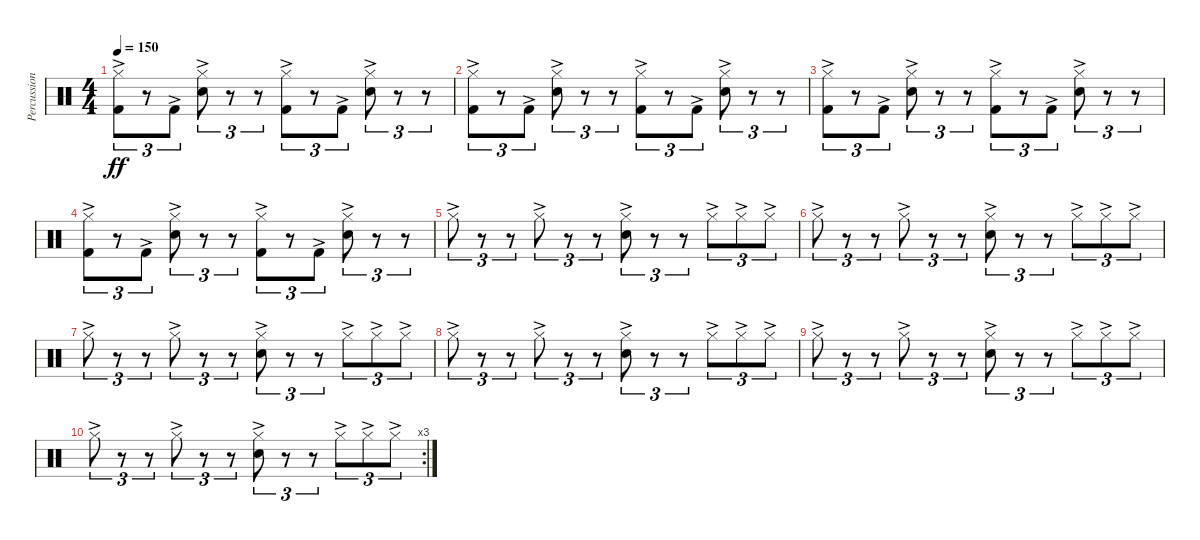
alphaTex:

\track ("Percussion" "Percussion") {instrument percussion}
\staff {score}
\articulation defaults
\ts (4 4)
\tempo 150
\clef neutral
\ks c
("Hi-Hat (closed)"{ac} "Kick (hit) 2"{ac}).8{tu (3 2) dy ff} r.8{tu (3 2)} "Kick (hit) 2"{ac}.8{tu (3 2)} ("Hi-Hat (closed)"{ac} "Snare (hit) 2"{ac}).8{tu (3 2)} r.8{tu (3 2)} r.8{tu (3 2)} ("Hi-Hat (closed)"{ac} "Kick (hit) 2"{ac}).8{tu (3 2)} r.8{tu (3 2)} "Kick (hit) 2"{ac}.8{tu (3 2)} ("Hi-Hat (closed)"{ac} "Snare (hit) 2"{ac}).8{tu (3 2)} r.8{tu (3 2)} r.8{tu (3 2)} |
("Hi-Hat (closed)"{ac} "Kick (hit) 2"{ac}).8{tu (3 2)} r.8{tu (3 2)} "Kick (hit) 2"{ac}.8{tu (3 2)} ("Hi-Hat (closed)"{ac} "Snare (hit) 2"{ac}).8{tu (3 2)} r.8{tu (3 2)} r.8{tu (3 2)} ("Hi-Hat (closed)"{ac} "Kick (hit) 2"{ac}).8{tu (3 2)} r.8{tu (3 2)} "Kick (hit) 2"{ac}.8{tu (3 2)} ("Hi-Hat (closed)"{ac} "Snare (hit) 2"{ac}).8{tu (3 2)} r.8{tu (3 2)} r.8{tu (3 2)} |
("Hi-Hat (closed)"{ac} "Kick (hit) 2"{ac}).8{tu (3 2)} r.8{tu (3 2)} "Kick (hit) 2"{ac}.8{tu (3 2)} ("Hi-Hat (closed)"{ac} "Snare (hit) 2"{ac}).8{tu (3 2)} r.8{tu (3 2)} r.8{tu (3 2)} ("Hi-Hat (closed)"{ac} "Kick (hit) 2"{ac}).8{tu (3 2)} r.8{tu (3 2)} "Kick (hit) 2"{ac}.8{tu (3 2)} ("Hi-Hat (closed)"{ac} "Snare (hit) 2"{ac}).8{tu (3 2)} r.8{tu (3 2)} r.8{tu (3 2)} |
("Hi-Hat (closed)"{ac} "Kick (hit) 2"{ac}).8{tu (3 2)} r.8{tu (3 2)} "Kick (hit) 2"{ac}.8{tu (3 2)} ("Hi-Hat (closed)"{ac} "Snare (hit) 2"{ac}).8{tu (3 2)} r.8{tu (3 2)} r.8{tu (3 2)} ("Hi-Hat (closed)"{ac} "Kick (hit) 2"{ac}).8{tu (3 2)} r.8{tu (3 2)} "Kick (hit) 2"{ac}.8{tu (3 2)} ("Hi-Hat (closed)"{ac} "Snare (hit) 2"{ac}).8{tu (3 2)} r.8{tu (3 2)} r.8{tu (3 2)} |
"Hi-Hat (closed)"{ac}.8{tu (3 2)} r.8{tu (3 2)} r.8{tu (3 2)} "Hi-Hat (closed)"{ac}.8{tu (3 2)} r.8{tu (3 2)} r.8{tu (3 2)} ("Hi-Hat (closed)"{ac} "Snare (hit) 2"{ac}).8{tu (3 2)} r.8{tu (3 2)} r.8{tu (3 2)} "Hi-Hat (closed)"{ac}.8{tu (3 2)} "Hi-Hat (closed)"{ac}.8{tu (3 2)} "Hi-Hat (closed)"{ac}.8{tu (3 2)} |
"Hi-Hat (closed)"{ac}.8{tu (3 2)} r.8{tu (3 2)} r.8{tu (3 2)} "Hi-Hat (closed)"{ac}.8{tu (3 2)} r.8{tu (3 2)} r.8{tu (3 2)} ("Hi-Hat (closed)"{ac} "Snare (hit) 2"{ac}).8{tu (3 2)} r.8{tu (3 2)} r.8{tu (3 2)} "Hi-Hat (closed)"{ac}.8{tu (3 2)} "Hi-Hat (closed)"{ac}.8{tu (3 2)} "Hi-Hat (closed)"{ac}.8{tu (3 2)} |
"Hi-Hat (closed)"{ac}.8{tu (3 2)} r.8{tu (3 2)} r.8{tu (3 2)} "Hi-Hat (closed)"{ac}.8{tu (3 2)} r.8{tu (3 2)} r.8{tu (3 2)} ("Hi-Hat (closed)"{ac} "Snare (hit) 2"{ac}).8{tu (3 2)} r.8{tu (3 2)} r.8{tu (3 2)} "Hi-Hat (closed)"{ac}.8{tu (3 2)} "Hi-Hat (closed)"{ac}.8{tu (3 2)} "Hi-Hat (closed)"{ac}.8{tu (3 2)} |
"Hi-Hat (closed)"{ac}.8{tu (3 2)} r.8{tu (3 2)} r.8{tu (3 2)} "Hi-Hat (closed)"{ac}.8{tu (3 2)} r.8{tu (3 2)} r.8{tu (3 2)} ("Hi-Hat (closed)"{ac} "Snare (hit) 2"{ac}).8{tu (3 2)} r.8{tu (3 2)} r.8{tu (3 2)} "Hi-Hat (closed)"{ac}.8{tu (3 2)} "Hi-Hat (closed)"{ac}.8{tu (3 2)} "Hi-Hat (closed)"{ac}.8{tu (3 2)} |
"Hi-Hat (closed)"{ac}.8{tu (3 2)} r.8{tu (3 2)} r.8{tu (3 2)} "Hi-Hat (closed)"{ac}.8{tu (3 2)} r.8{tu (3 2)} r.8{tu (3 2)} ("Hi-Hat (closed)"{ac} "Snare (hit) 2"{ac}).8{tu (3 2)} r.8{tu (3 2)} r.8{tu (3 2)} "Hi-Hat (closed)"{ac}.8{tu (3 2)} "Hi-Hat (closed)"{ac}.8{tu (3 2)} "Hi-Hat (closed)"{ac}.8{tu (3 2)} |
\rc 3 "Hi-Hat (closed)"{ac}.8{tu (3 2)}
r.8{tu (3 2)} r.8{tu (3 2)} "Hi-Hat (closed)"{ac}.8{tu (3 2)} r.8{tu (3 2)} r.8{tu (3 2)} ("Hi-Hat (closed)"{ac} "Snare (hit) 2"{ac}).8{tu (3 2)} r.8{tu (3 2)} r.8{tu (3 2)} "Hi-Hat (closed)"{ac}.8{tu (3 2)} "Hi-Hat (closed)"{ac}.8{tu (3 2)} "Hi-Hat (closed)"{ac}.8{tu (3 2)}
